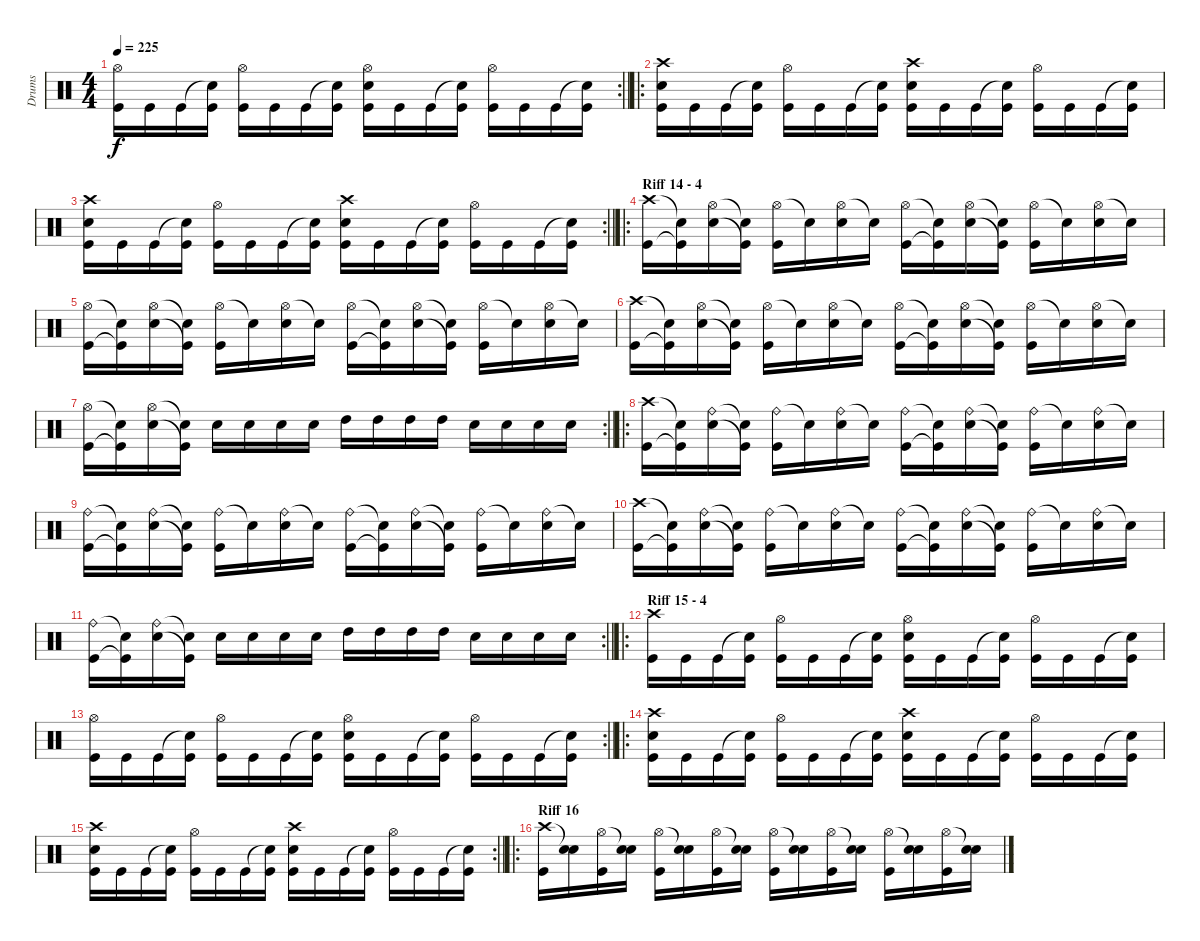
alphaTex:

\track ("Drums" "Drums") {instrument percussion}
\staff {score}
\articulation defaults
\rc 2
\ts (4 4)
\tempo 225
\clef neutral
\barLineRight lightlight
\ks c
("Hi-Hat (open)" "Kick (hit)").16{dy f} "Kick (hit)".16 "Kick (hit)".16 ("Snare (hit)"{t} "Kick (hit)").16 ("Hi-Hat (open)" "Kick (hit)").16 "Kick (hit)".16 "Kick (hit)".16 ("Snare (hit)"{t} "Kick (hit)").16 ("Hi-Hat (open)" "Electric Snare (hit)" "Kick (hit)").16 "Kick (hit)".16 "Kick (hit)".16 ("Snare (hit)"{t} "Kick (hit)").16 ("Hi-Hat (open)" "Kick (hit)").16 "Kick (hit)".16 "Kick (hit)".16 ("Snare (hit)"{t} "Kick (hit)").16 |
\ro
("Crash high (hit)" "Electric Snare (hit)" "Kick (hit)").16 "Kick (hit)".16 "Kick (hit)".16 ("Snare (hit)"{t} "Kick (hit)").16 ("Hi-Hat (open)" "Kick (hit)").16 "Kick (hit)".16 "Kick (hit)".16 ("Snare (hit)"{t} "Kick (hit)").16 ("Crash high (hit)" "Electric Snare (hit)" "Kick (hit)").16 "Kick (hit)".16 "Kick (hit)".16 ("Snare (hit)"{t} "Kick (hit)").16 ("Hi-Hat (open)" "Kick (hit)").16 "Kick (hit)".16 "Kick (hit)".16 ("Snare (hit)"{t} "Kick (hit)").16 |
\rc 2
\barLineRight lightlight
("Crash high (hit)" "Electric Snare (hit)" "Kick (hit)").16 "Kick (hit)".16 "Kick (hit)".16 ("Snare (hit)"{t} "Kick (hit)").16 ("Hi-Hat (open)" "Kick (hit)").16 "Kick (hit)".16 "Kick (hit)".16 ("Snare (hit)"{t} "Kick (hit)").16 ("Crash high (hit)" "Electric Snare (hit)" "Kick (hit)").16 "Kick (hit)".16 "Kick (hit)".16 ("Snare (hit)"{t} "Kick (hit)").16 ("Hi-Hat (open)" "Kick (hit)").16 "Kick (hit)".16 "Kick (hit)".16 ("Snare (hit)"{t} "Kick (hit)").16 |
\ro
\section ("" "Riff 14 - 4")
("Crash high (hit)" "Kick (hit)").16 ("Snare (hit)"{t} "Kick (hit)"{t}).16 ("Hi-Hat (open)" "Electric Snare (hit)").16 ("Snare (hit)"{t} "Kick (hit)"{t}).16 ("Hi-Hat (open)" "Kick (hit)").16 "Snare (hit)"{t}.16 ("Hi-Hat (open)" "Electric Snare (hit)").16 "Snare (hit)"{t}.16 ("Hi-Hat (open)" "Kick (hit)").16 ("Snare (hit)"{t} "Kick (hit)"{t}).16 ("Hi-Hat (open)" "Electric Snare (hit)").16 ("Snare (hit)"{t} "Kick (hit)"{t}).16 ("Hi-Hat (open)" "Kick (hit)").16 "Snare (hit)"{t}.16 ("Hi-Hat (open)" "Electric Snare (hit)").16 "Snare (hit)"{t}.16 |
("Hi-Hat (open)" "Kick (hit)").16 ("Snare (hit)"{t} "Kick (hit)"{t}).16 ("Hi-Hat (open)" "Electric Snare (hit)").16 ("Snare (hit)"{t} "Kick (hit)"{t}).16 ("Hi-Hat (open)" "Kick (hit)").16 "Snare (hit)"{t}.16 ("Hi-Hat (open)" "Electric Snare (hit)").16 "Snare (hit)"{t}.16 ("Hi-Hat (open)" "Kick (hit)").16 ("Snare (hit)"{t} "Kick (hit)"{t}).16 ("Hi-Hat (open)" "Electric Snare (hit)").16 ("Snare (hit)"{t} "Kick (hit)"{t}).16 ("Hi-Hat (open)" "Kick (hit)").16 "Snare (hit)"{t}.16 ("Hi-Hat (open)" "Electric Snare (hit)").16 "Snare (hit)"{t}.16 |
("Crash high (hit)" "Kick (hit)").16 ("Snare (hit)"{t} "Kick (hit)"{t}).16 ("Hi-Hat (open)" "Electric Snare (hit)").16 ("Snare (hit)"{t} "Kick (hit)"{t}).16 ("Hi-Hat (open)" "Kick (hit)").16 "Snare (hit)"{t}.16 ("Hi-Hat (open)" "Electric Snare (hit)").16 "Snare (hit)"{t}.16 ("Hi-Hat (open)" "Kick (hit)").16 ("Snare (hit)"{t} "Kick (hit)"{t}).16 ("Hi-Hat (open)" "Electric Snare (hit)").16 ("Snare (hit)"{t} "Kick (hit)"{t}).16 ("Hi-Hat (open)" "Kick (hit)").16 "Snare (hit)"{t}.16 ("Hi-Hat (open)" "Electric Snare (hit)").16 "Snare (hit)"{t}.16 |
\rc 2
\barLineRight lightlight
("Hi-Hat (open)" "Kick (hit)").16 ("Snare (hit)"{t} "Kick (hit)"{t}).16 ("Hi-Hat (open)" "Electric Snare (hit)").16 ("Snare (hit)"{t} "Kick (hit)"{t}).16 "Electric Snare (hit)".16 "Electric Snare (hit)".16 "Electric Snare (hit)".16 "Electric Snare (hit)".16 "High Tom (hit)".16 "High Tom (hit)".16 "High Tom (hit)".16 "High Tom (hit)".16 "Electric Snare (hit)".16 "Electric Snare (hit)".16 "Electric Snare (hit)".16 "Electric Snare (hit)".16 |
\ro
("Crash high (hit)" "Kick (hit)").16 ("Snare (hit)"{t} "Kick (hit)"{t}).16 ("Ride (bell)" "Electric Snare (hit)").16 ("Snare (hit)"{t} "Kick (hit)"{t}).16 ("Ride (bell)" "Kick (hit)").16 "Snare (hit)"{t}.16 ("Ride (bell)" "Electric Snare (hit)").16 "Snare (hit)"{t}.16 ("Ride (bell)" "Kick (hit)").16 ("Snare (hit)"{t} "Kick (hit)"{t}).16 ("Ride (bell)" "Electric Snare (hit)").16 ("Snare (hit)"{t} "Kick (hit)"{t}).16 ("Ride (bell)" "Kick (hit)").16 "Snare (hit)"{t}.16 ("Ride (bell)" "Electric Snare (hit)").16 "Snare (hit)"{t}.16 |
("Ride (bell)" "Kick (hit)").16 ("Snare (hit)"{t} "Kick (hit)"{t}).16 ("Ride (bell)" "Electric Snare (hit)").16 ("Snare (hit)"{t} "Kick (hit)"{t}).16 ("Ride (bell)" "Kick (hit)").16 "Snare (hit)"{t}.16 ("Ride (bell)" "Electric Snare (hit)").16 "Snare (hit)"{t}.16 ("Ride (bell)" "Kick (hit)").16 ("Snare (hit)"{t} "Kick (hit)"{t}).16 ("Ride (bell)" "Electric Snare (hit)").16 ("Snare (hit)"{t} "Kick (hit)"{t}).16 ("Ride (bell)" "Kick (hit)").16 "Snare (hit)"{t}.16 ("Ride (bell)" "Electric Snare (hit)").16 "Snare (hit)"{t}.16 |
("Crash high (hit)" "Kick (hit)").16 ("Snare (hit)"{t} "Kick (hit)"{t}).16 ("Ride (bell)" "Electric Snare (hit)").16 ("Snare (hit)"{t} "Kick (hit)"{t}).16 ("Ride (bell)" "Kick (hit)").16 "Snare (hit)"{t}.16 ("Ride (bell)" "Electric Snare (hit)").16 "Snare (hit)"{t}.16 ("Ride (bell)" "Kick (hit)").16 ("Snare (hit)"{t} "Kick (hit)"{t}).16 ("Ride (bell)" "Electric Snare (hit)").16 ("Snare (hit)"{t} "Kick (hit)"{t}).16 ("Ride (bell)" "Kick (hit)").16 "Snare (hit)"{t}.16 ("Ride (bell)" "Electric Snare (hit)").16 "Snare (hit)"{t}.16 |
\rc 2
\barLineRight lightlight
("Ride (bell)" "Kick (hit)").16 ("Snare (hit)"{t} "Kick (hit)"{t}).16 ("Ride (bell)" "Electric Snare (hit)").16 ("Snare (hit)"{t} "Kick (hit)"{t}).16 "Electric Snare (hit)".16 "Electric Snare (hit)".16 "Electric Snare (hit)".16 "Electric Snare (hit)".16 "High Tom (hit)".16 "High Tom (hit)".16 "High Tom (hit)".16 "High Tom (hit)".16 "Electric Snare (hit)".16 "Electric Snare (hit)".16 "Electric Snare (hit)".16 "Electric Snare (hit)".16 |
\ro
\section ("" "Riff 15 - 4")
("Crash high (hit)" "Kick (hit)").16 "Kick (hit)".16 "Kick (hit)".16 ("Snare (hit)"{t} "Kick (hit)").16 ("Hi-Hat (open)" "Kick (hit)").16 "Kick (hit)".16 "Kick (hit)".16 ("Snare (hit)"{t} "Kick (hit)").16 ("Hi-Hat (open)" "Electric Snare (hit)" "Kick (hit)").16 "Kick (hit)".16 "Kick (hit)".16 ("Snare (hit)"{t} "Kick (hit)").16 ("Hi-Hat (open)" "Kick (hit)").16 "Kick (hit)".16 "Kick (hit)".16 ("Snare (hit)"{t} "Kick (hit)").16 |
\rc 2
\barLineRight lightlight
("Hi-Hat (open)" "Kick (hit)").16 "Kick (hit)".16 "Kick (hit)".16 ("Snare (hit)"{t} "Kick (hit)").16 ("Hi-Hat (open)" "Kick (hit)").16 "Kick (hit)".16 "Kick (hit)".16 ("Snare (hit)"{t} "Kick (hit)").16 ("Hi-Hat (open)" "Electric Snare (hit)" "Kick (hit)").16 "Kick (hit)".16 "Kick (hit)".16 ("Snare (hit)"{t} "Kick (hit)").16 ("Hi-Hat (open)" "Kick (hit)").16 "Kick (hit)".16 "Kick (hit)".16 ("Snare (hit)"{t} "Kick (hit)").16 |
\ro
("Crash high (hit)" "Electric Snare (hit)" "Kick (hit)").16 "Kick (hit)".16 "Kick (hit)".16 ("Snare (hit)"{t} "Kick (hit)").16 ("Hi-Hat (open)" "Kick (hit)").16 "Kick (hit)".16 "Kick (hit)".16 ("Snare (hit)"{t} "Kick (hit)").16 ("Crash high (hit)" "Electric Snare (hit)" "Kick (hit)").16 "Kick (hit)".16 "Kick (hit)".16 ("Snare (hit)"{t} "Kick (hit)").16 ("Hi-Hat (open)" "Kick (hit)").16 "Kick (hit)".16 "Kick (hit)".16 ("Snare (hit)"{t} "Kick (hit)").16 |
\rc 2
\barLineRight lightlight
("Crash high (hit)" "Electric Snare (hit)" "Kick (hit)").16 "Kick (hit)".16 "Kick (hit)".16 ("Snare (hit)"{t} "Kick (hit)").16 ("Hi-Hat (open)" "Kick (hit)").16 "Kick (hit)".16 "Kick (hit)".16 ("Snare (hit)"{t} "Kick (hit)").16 ("Crash high (hit)" "Electric Snare (hit)" "Kick (hit)").16 "Kick (hit)".16 "Kick (hit)".16 ("Snare (hit)"{t} "Kick (hit)").16 ("Hi-Hat (open)" "Kick (hit)").16 "Kick (hit)".16 "Kick (hit)".16 ("Snare (hit)"{t} "Kick (hit)").16 |
\ro
\section ("" "Riff 16")
("Crash high (hit)" "Kick (hit)").16 ("Snare (hit)"{t} "Electric Snare (hit)").16 ("Hi-Hat (open)" "Kick (hit)").16 ("Snare (hit)"{t} "Electric Snare (hit)").16 ("Hi-Hat (open)" "Kick (hit)").16 ("Snare (hit)"{t} "Electric Snare (hit)").16 ("Hi-Hat (open)" "Kick (hit)").16 ("Snare (hit)"{t} "Electric Snare (hit)").16 ("Hi-Hat (open)" "Kick (hit)").16 ("Snare (hit)"{t} "Electric Snare (hit)").16 ("Hi-Hat (open)" "Kick (hit)").16 ("Snare (hit)"{t} "Electric Snare (hit)").16 ("Hi-Hat (open)" "Kick (hit)").16 ("Snare (hit)"{t} "Electric Snare (hit)").16 ("Hi-Hat (open)" "Kick (hit)").16 ("Snare (hit)"{t} "Electric Snare (hit)").16
